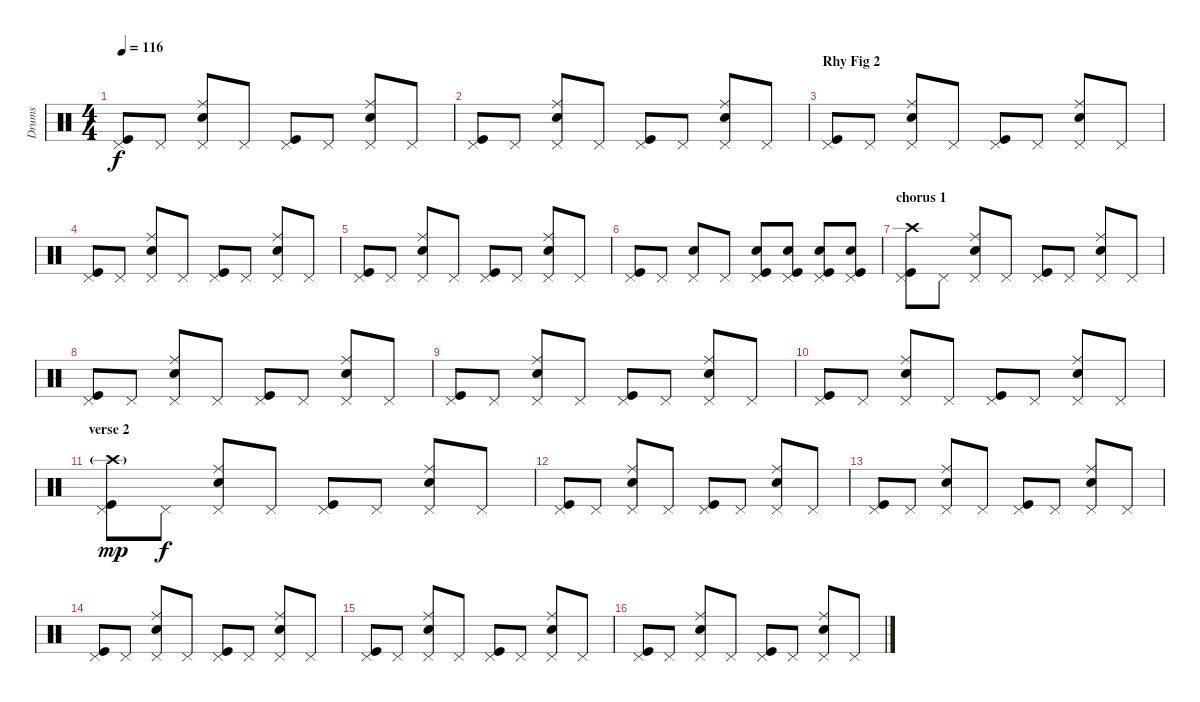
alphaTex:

\track ("Drums" "Drums") {instrument percussion}
\staff {score}
\articulation defaults
\ts (4 4)
\tempo 116
\clef neutral
\ks c
("Pedal Hi-Hat (hit)" "Kick (hit)").8{dy f} "Pedal Hi-Hat (hit)".8 ("Ride (middle)" "Electric Snare (hit)" "Pedal Hi-Hat (hit)").8 "Pedal Hi-Hat (hit)".8 ("Pedal Hi-Hat (hit)" "Kick (hit)").8 "Pedal Hi-Hat (hit)".8 ("Ride (middle)" "Electric Snare (hit)" "Pedal Hi-Hat (hit)").8 "Pedal Hi-Hat (hit)".8 |
("Pedal Hi-Hat (hit)" "Kick (hit)").8 "Pedal Hi-Hat (hit)".8 ("Ride (middle)" "Electric Snare (hit)" "Pedal Hi-Hat (hit)").8 "Pedal Hi-Hat (hit)".8 ("Pedal Hi-Hat (hit)" "Kick (hit)").8 "Pedal Hi-Hat (hit)".8 ("Ride (middle)" "Electric Snare (hit)" "Pedal Hi-Hat (hit)").8 "Pedal Hi-Hat (hit)".8 |
\section ("" "Rhy Fig 2")
("Pedal Hi-Hat (hit)" "Kick (hit)").8 "Pedal Hi-Hat (hit)".8 ("Ride (middle)" "Electric Snare (hit)" "Pedal Hi-Hat (hit)").8 "Pedal Hi-Hat (hit)".8 ("Pedal Hi-Hat (hit)" "Kick (hit)").8 "Pedal Hi-Hat (hit)".8 ("Ride (middle)" "Electric Snare (hit)" "Pedal Hi-Hat (hit)").8 "Pedal Hi-Hat (hit)".8 |
("Pedal Hi-Hat (hit)" "Kick (hit)").8 "Pedal Hi-Hat (hit)".8 ("Ride (middle)" "Electric Snare (hit)" "Pedal Hi-Hat (hit)").8 "Pedal Hi-Hat (hit)".8 ("Pedal Hi-Hat (hit)" "Kick (hit)").8 "Pedal Hi-Hat (hit)".8 ("Ride (middle)" "Electric Snare (hit)" "Pedal Hi-Hat (hit)").8 "Pedal Hi-Hat (hit)".8 |
("Pedal Hi-Hat (hit)" "Kick (hit)").8 "Pedal Hi-Hat (hit)".8 ("Ride (middle)" "Electric Snare (hit)" "Pedal Hi-Hat (hit)").8 "Pedal Hi-Hat (hit)".8 ("Pedal Hi-Hat (hit)" "Kick (hit)").8 "Pedal Hi-Hat (hit)".8 ("Ride (middle)" "Electric Snare (hit)" "Pedal Hi-Hat (hit)").8 "Pedal Hi-Hat (hit)".8 |
("Pedal Hi-Hat (hit)" "Kick (hit)").8 "Pedal Hi-Hat (hit)".8 ("Electric Snare (hit)" "Pedal Hi-Hat (hit)").8 "Pedal Hi-Hat (hit)".8 ("Electric Snare (hit)" "Pedal Hi-Hat (hit)" "Kick (hit)").8 ("Electric Snare (hit)" "Pedal Hi-Hat (hit)" "Kick (hit)").8 ("Electric Snare (hit)" "Pedal Hi-Hat (hit)" "Kick (hit)").8 ("Electric Snare (hit)" "Pedal Hi-Hat (hit)" "Kick (hit)").8 |
\section ("" "chorus 1")
("Crash high (hit)" "Pedal Hi-Hat (hit)" "Kick (hit)").8 "Pedal Hi-Hat (hit)".8 ("Ride (middle)" "Electric Snare (hit)" "Pedal Hi-Hat (hit)").8 "Pedal Hi-Hat (hit)".8 ("Pedal Hi-Hat (hit)" "Kick (hit)").8 "Pedal Hi-Hat (hit)".8 ("Ride (middle)" "Electric Snare (hit)" "Pedal Hi-Hat (hit)").8 "Pedal Hi-Hat (hit)".8 |
("Pedal Hi-Hat (hit)" "Kick (hit)").8 "Pedal Hi-Hat (hit)".8 ("Ride (middle)" "Electric Snare (hit)" "Pedal Hi-Hat (hit)").8 "Pedal Hi-Hat (hit)".8 ("Pedal Hi-Hat (hit)" "Kick (hit)").8 "Pedal Hi-Hat (hit)".8 ("Ride (middle)" "Electric Snare (hit)" "Pedal Hi-Hat (hit)").8 "Pedal Hi-Hat (hit)".8 |
("Pedal Hi-Hat (hit)" "Kick (hit)").8 "Pedal Hi-Hat (hit)".8 ("Ride (middle)" "Electric Snare (hit)" "Pedal Hi-Hat (hit)").8 "Pedal Hi-Hat (hit)".8 ("Pedal Hi-Hat (hit)" "Kick (hit)").8 "Pedal Hi-Hat (hit)".8 ("Ride (middle)" "Electric Snare (hit)" "Pedal Hi-Hat (hit)").8 "Pedal Hi-Hat (hit)".8 |
("Pedal Hi-Hat (hit)" "Kick (hit)").8 "Pedal Hi-Hat (hit)".8 ("Ride (middle)" "Electric Snare (hit)" "Pedal Hi-Hat (hit)").8 "Pedal Hi-Hat (hit)".8 ("Pedal Hi-Hat (hit)" "Kick (hit)").8 "Pedal Hi-Hat (hit)".8 ("Ride (middle)" "Electric Snare (hit)" "Pedal Hi-Hat (hit)").8 "Pedal Hi-Hat (hit)".8 |
\section ("" "verse 2")
("Crash high (hit)"{g} "Pedal Hi-Hat (hit)" "Kick (hit)").8{dy mp} "Pedal Hi-Hat (hit)".8{dy f} ("Ride (middle)" "Electric Snare (hit)" "Pedal Hi-Hat (hit)").8 "Pedal Hi-Hat (hit)".8 ("Pedal Hi-Hat (hit)" "Kick (hit)").8 "Pedal Hi-Hat (hit)".8 ("Ride (middle)" "Electric Snare (hit)" "Pedal Hi-Hat (hit)").8 "Pedal Hi-Hat (hit)".8 |
("Pedal Hi-Hat (hit)" "Kick (hit)").8 "Pedal Hi-Hat (hit)".8 ("Ride (middle)" "Electric Snare (hit)" "Pedal Hi-Hat (hit)").8 "Pedal Hi-Hat (hit)".8 ("Pedal Hi-Hat (hit)" "Kick (hit)").8 "Pedal Hi-Hat (hit)".8 ("Ride (middle)" "Electric Snare (hit)" "Pedal Hi-Hat (hit)").8 "Pedal Hi-Hat (hit)".8 |
("Pedal Hi-Hat (hit)" "Kick (hit)").8 "Pedal Hi-Hat (hit)".8 ("Ride (middle)" "Electric Snare (hit)" "Pedal Hi-Hat (hit)").8 "Pedal Hi-Hat (hit)".8 ("Pedal Hi-Hat (hit)" "Kick (hit)").8 "Pedal Hi-Hat (hit)".8 ("Ride (middle)" "Electric Snare (hit)" "Pedal Hi-Hat (hit)").8 "Pedal Hi-Hat (hit)".8 |
("Pedal Hi-Hat (hit)" "Kick (hit)").8 "Pedal Hi-Hat (hit)".8 ("Ride (middle)" "Electric Snare (hit)" "Pedal Hi-Hat (hit)").8 "Pedal Hi-Hat (hit)".8 ("Pedal Hi-Hat (hit)" "Kick (hit)").8 "Pedal Hi-Hat (hit)".8 ("Ride (middle)" "Electric Snare (hit)" "Pedal Hi-Hat (hit)").8 "Pedal Hi-Hat (hit)".8 |
("Pedal Hi-Hat (hit)" "Kick (hit)").8 "Pedal Hi-Hat (hit)".8 ("Ride (middle)" "Electric Snare (hit)" "Pedal Hi-Hat (hit)").8 "Pedal Hi-Hat (hit)".8 ("Pedal Hi-Hat (hit)" "Kick (hit)").8 "Pedal Hi-Hat (hit)".8 ("Ride (middle)" "Electric Snare (hit)" "Pedal Hi-Hat (hit)").8 "Pedal Hi-Hat (hit)".8 |
("Pedal Hi-Hat (hit)" "Kick (hit)").8 "Pedal Hi-Hat (hit)".8 ("Ride (middle)" "Electric Snare (hit)" "Pedal Hi-Hat (hit)").8 "Pedal Hi-Hat (hit)".8 ("Pedal Hi-Hat (hit)" "Kick (hit)").8 "Pedal Hi-Hat (hit)".8 ("Ride (middle)" "Electric Snare (hit)" "Pedal Hi-Hat (hit)").8 "Pedal Hi-Hat (hit)".8
